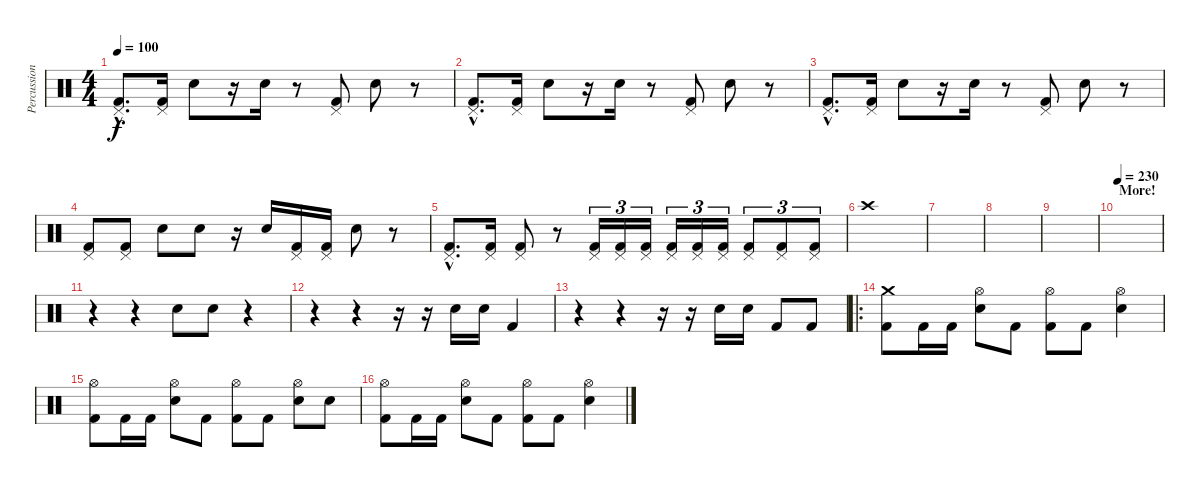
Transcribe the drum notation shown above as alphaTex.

\track ("Percussion" "Percussion") {instrument percussion}
\staff {score}
\articulation defaults
\ts (4 4)
\tempo 100
\clef neutral
\ks c
("Pedal Hi-Hat (hit)"{hac} "Kick (hit) 2"{hac}).8{d dy f} ("Pedal Hi-Hat (hit)" "Kick (hit) 2").16 "Snare (hit) 2".8 r.16 "Snare (hit) 2".16 r.8 ("Pedal Hi-Hat (hit)" "Kick (hit) 2").8 "Snare (hit) 2".8 r.8 |
("Pedal Hi-Hat (hit)"{hac} "Kick (hit) 2"{hac}).8{d} ("Pedal Hi-Hat (hit)" "Kick (hit) 2").16 "Snare (hit) 2".8 r.16 "Snare (hit) 2".16 r.8 ("Pedal Hi-Hat (hit)" "Kick (hit) 2").8 "Snare (hit) 2".8 r.8 |
("Pedal Hi-Hat (hit)"{hac} "Kick (hit) 2"{hac}).8{d} ("Pedal Hi-Hat (hit)" "Kick (hit) 2").16 "Snare (hit) 2".8 r.16 "Snare (hit) 2".16 r.8 ("Pedal Hi-Hat (hit)" "Kick (hit) 2").8 "Snare (hit) 2".8 r.8 |
("Pedal Hi-Hat (hit)" "Kick (hit) 2").8 ("Pedal Hi-Hat (hit)" "Kick (hit) 2").8 "Snare (hit) 2".8 "Snare (hit) 2".8 r.16 "Snare (hit) 2".16 ("Pedal Hi-Hat (hit)" "Kick (hit) 2").16 ("Pedal Hi-Hat (hit)" "Kick (hit) 2").16 "Snare (hit) 2".8 r.8 |
("Pedal Hi-Hat (hit)"{hac} "Kick (hit) 2"{hac}).8{d} ("Pedal Hi-Hat (hit)" "Kick (hit) 2").16 ("Pedal Hi-Hat (hit)" "Kick (hit) 2").8 r.8 ("Pedal Hi-Hat (hit)" "Kick (hit) 2").16{tu (3 2)} ("Pedal Hi-Hat (hit)" "Kick (hit) 2").16{tu (3 2)} ("Pedal Hi-Hat (hit)" "Kick (hit) 2").16{tu (3 2)} ("Pedal Hi-Hat (hit)" "Kick (hit) 2").16{tu (3 2)} ("Pedal Hi-Hat (hit)" "Kick (hit) 2").16{tu (3 2)} ("Pedal Hi-Hat (hit)" "Kick (hit) 2").16{tu (3 2)} ("Pedal Hi-Hat (hit)" "Kick (hit) 2").8{tu (3 2)} ("Pedal Hi-Hat (hit)" "Kick (hit) 2").8{tu (3 2)} ("Pedal Hi-Hat (hit)" "Kick (hit) 2").8{tu (3 2)} |
"Crash high (hit)".1 |
|
|
|
\section ("" "More!")
\tempo 230
|
r.4 r.4 "Electric Snare (hit)".8 "Electric Snare (hit)".8 r.4 |
r.4 r.4 r.16 r.16 "Electric Snare (hit)".16 "Electric Snare (hit)".16 "Kick (hit) 2".4 |
r.4 r.4 r.16 r.16 "Electric Snare (hit)".16 "Electric Snare (hit)".16 "Kick (hit) 2".8 "Kick (hit) 2".8 |
\ro
("Crash medium (hit)" "Kick (hit) 2").8 "Kick (hit) 2".16 "Kick (hit) 2".16 ("Hi-Hat (open)" "Electric Snare (hit)").8 "Kick (hit) 2".8 ("Hi-Hat (open)" "Kick (hit) 2").8 "Kick (hit) 2".8 ("Hi-Hat (open)" "Electric Snare (hit)").4 |
("Hi-Hat (open)" "Kick (hit) 2").8 "Kick (hit) 2".16 "Kick (hit) 2".16 ("Hi-Hat (open)" "Electric Snare (hit)").8 "Kick (hit) 2".8 ("Hi-Hat (open)" "Kick (hit) 2").8 "Kick (hit) 2".8 ("Hi-Hat (open)" "Electric Snare (hit)").8 "Electric Snare (hit)".8 |
("Hi-Hat (open)" "Kick (hit) 2").8 "Kick (hit) 2".16 "Kick (hit) 2".16 ("Hi-Hat (open)" "Electric Snare (hit)").8 "Kick (hit) 2".8 ("Hi-Hat (open)" "Kick (hit) 2").8 "Kick (hit) 2".8 ("Hi-Hat (open)" "Electric Snare (hit)").4
